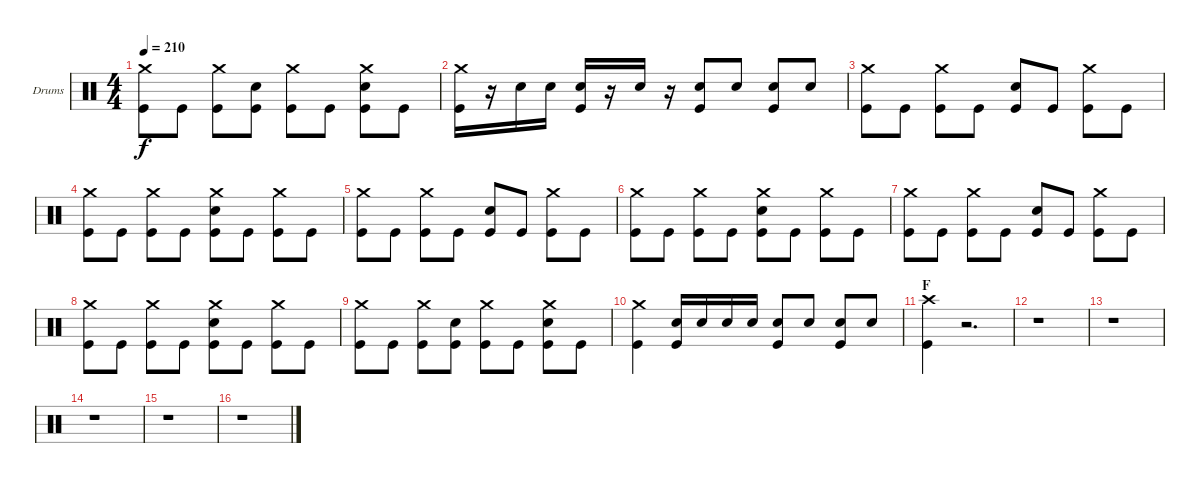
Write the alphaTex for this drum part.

\bracketExtendMode groupsimilarinstruments
\firstSystemTrackNameOrientation horizontal
\otherSystemsTrackNameOrientation horizontal
\track ("Drumkit" "Drums") {instrument percussion}
\staff {score}
\articulation defaults
\ts (4 4)
\tempo 210
\clef neutral
\ks c
("Crash medium (hit)" "Kick (hit)").8{dy f} "Kick (hit)".8 ("Crash medium (hit)" "Kick (hit)").8 ("Snare (hit) 2" "Kick (hit)").8 ("Crash medium (hit)" "Kick (hit)").8 "Kick (hit)".8 ("Crash medium (hit)" "Snare (hit) 2" "Kick (hit)").8 "Kick (hit)".8 |
("Crash medium (hit)" "Kick (hit)").16 r.16 "Snare (hit) 2".16 "Snare (hit) 2".16 ("Snare (hit) 2" "Kick (hit)").16 r.16 "Snare (hit) 2".16 r.16 ("Snare (hit) 2" "Kick (hit)").8 "Snare (hit) 2".8 ("Snare (hit) 2" "Kick (hit)").8 "Snare (hit) 2".8 |
("Crash medium (hit)" "Kick (hit)").8 "Kick (hit)".8 ("Crash medium (hit)" "Kick (hit)").8 "Kick (hit)".8 ("Snare (hit) 2" "Kick (hit)").8 "Kick (hit)".8 ("Crash medium (hit)" "Kick (hit)").8 "Kick (hit)".8 |
("Crash medium (hit)" "Kick (hit)").8 "Kick (hit)".8 ("Crash medium (hit)" "Kick (hit)").8 "Kick (hit)".8 ("Crash medium (hit)" "Snare (hit) 2" "Kick (hit)").8 "Kick (hit)".8 ("Crash medium (hit)" "Kick (hit)").8 "Kick (hit)".8 |
("Crash medium (hit)" "Kick (hit)").8 "Kick (hit)".8 ("Crash medium (hit)" "Kick (hit)").8 "Kick (hit)".8 ("Snare (hit) 2" "Kick (hit)").8 "Kick (hit)".8 ("Crash medium (hit)" "Kick (hit)").8 "Kick (hit)".8 |
("Crash medium (hit)" "Kick (hit)").8 "Kick (hit)".8 ("Crash medium (hit)" "Kick (hit)").8 "Kick (hit)".8 ("Crash medium (hit)" "Snare (hit) 2" "Kick (hit)").8 "Kick (hit)".8 ("Crash medium (hit)" "Kick (hit)").8 "Kick (hit)".8 |
("Crash medium (hit)" "Kick (hit)").8 "Kick (hit)".8 ("Crash medium (hit)" "Kick (hit)").8 "Kick (hit)".8 ("Snare (hit) 2" "Kick (hit)").8 "Kick (hit)".8 ("Crash medium (hit)" "Kick (hit)").8 "Kick (hit)".8 |
("Crash medium (hit)" "Kick (hit)").8 "Kick (hit)".8 ("Crash medium (hit)" "Kick (hit)").8 "Kick (hit)".8 ("Crash medium (hit)" "Snare (hit) 2" "Kick (hit)").8 "Kick (hit)".8 ("Crash medium (hit)" "Kick (hit)").8 "Kick (hit)".8 |
("Crash medium (hit)" "Kick (hit)").8 "Kick (hit)".8 ("Crash medium (hit)" "Kick (hit)").8 ("Snare (hit) 2" "Kick (hit)").8 ("Crash medium (hit)" "Kick (hit)").8 "Kick (hit)".8 ("Crash medium (hit)" "Snare (hit) 2" "Kick (hit)").8 "Kick (hit)".8 |
("Crash medium (hit)" "Kick (hit)").4 ("Snare (hit) 2" "Kick (hit)").16 "Snare (hit) 2".16 "Snare (hit) 2".16 "Snare (hit) 2".16 ("Snare (hit) 2" "Kick (hit)").8 "Snare (hit) 2".8 ("Snare (hit) 2" "Kick (hit)").8 "Snare (hit) 2".8 |
\section ("" "F")
("Crash high (hit)" "Kick (hit)").4 r.2{d} |
r.1 |
r.1 |
r.1 |
r.1 |
r.1
